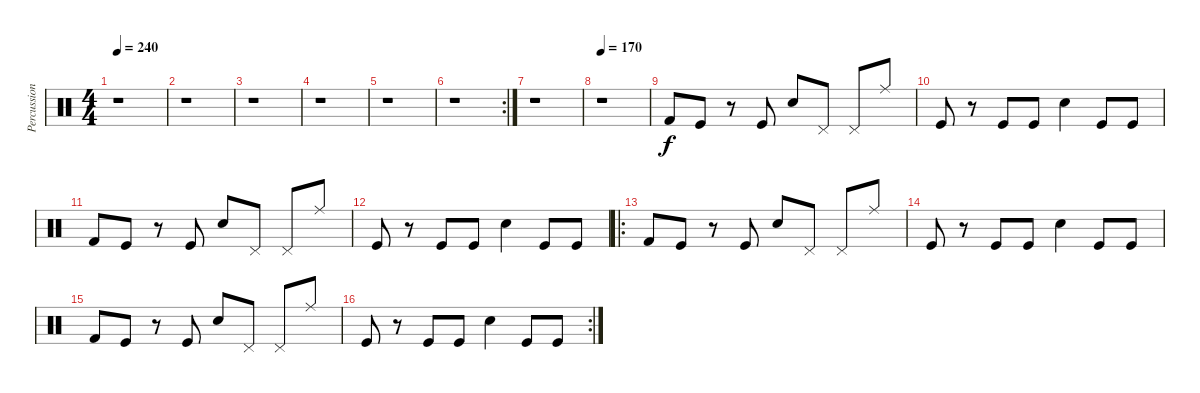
\track ("Percussion" "Percussion") {instrument percussion}
\staff {score}
\articulation defaults
\ts (4 4)
\tempo 240
\clef neutral
\ks c
r.1{dy f} |
r.1 |
r.1 |
r.1 |
r.1 |
\rc 2
r.1 |
r.1 |
\tempo 170
r.1{volume 16} |
"Kick (hit) 2".8 "Kick (hit)".8 r.8 "Kick (hit)".8 "Electric Snare (hit)".8 "Pedal Hi-Hat (hit)".8 "Pedal Hi-Hat (hit)".8 "Ride (middle)".8 |
"Kick (hit)".8 r.8 "Kick (hit)".8 "Kick (hit)".8 "Electric Snare (hit)".4 "Kick (hit)".8 "Kick (hit)".8 |
"Kick (hit) 2".8 "Kick (hit)".8 r.8 "Kick (hit)".8 "Electric Snare (hit)".8 "Pedal Hi-Hat (hit)".8 "Pedal Hi-Hat (hit)".8 "Ride (middle)".8 |
"Kick (hit)".8 r.8 "Kick (hit)".8 "Kick (hit)".8 "Electric Snare (hit)".4 "Kick (hit)".8 "Kick (hit)".8 |
\ro "Kick (hit) 2".8 "Kick (hit)".8
r.8 "Kick (hit)".8 "Electric Snare (hit)".8 "Pedal Hi-Hat (hit)".8 "Pedal Hi-Hat (hit)".8 "Ride (middle)".8 |
"Kick (hit)".8 r.8 "Kick (hit)".8 "Kick (hit)".8 "Electric Snare (hit)".4 "Kick (hit)".8 "Kick (hit)".8 |
"Kick (hit) 2".8 "Kick (hit)".8 r.8 "Kick (hit)".8 "Electric Snare (hit)".8 "Pedal Hi-Hat (hit)".8 "Pedal Hi-Hat (hit)".8 "Ride (middle)".8 |
\rc 2 "Kick (hit)".8
r.8 "Kick (hit)".8 "Kick (hit)".8 "Electric Snare (hit)".4 "Kick (hit)".8 "Kick (hit)".8
